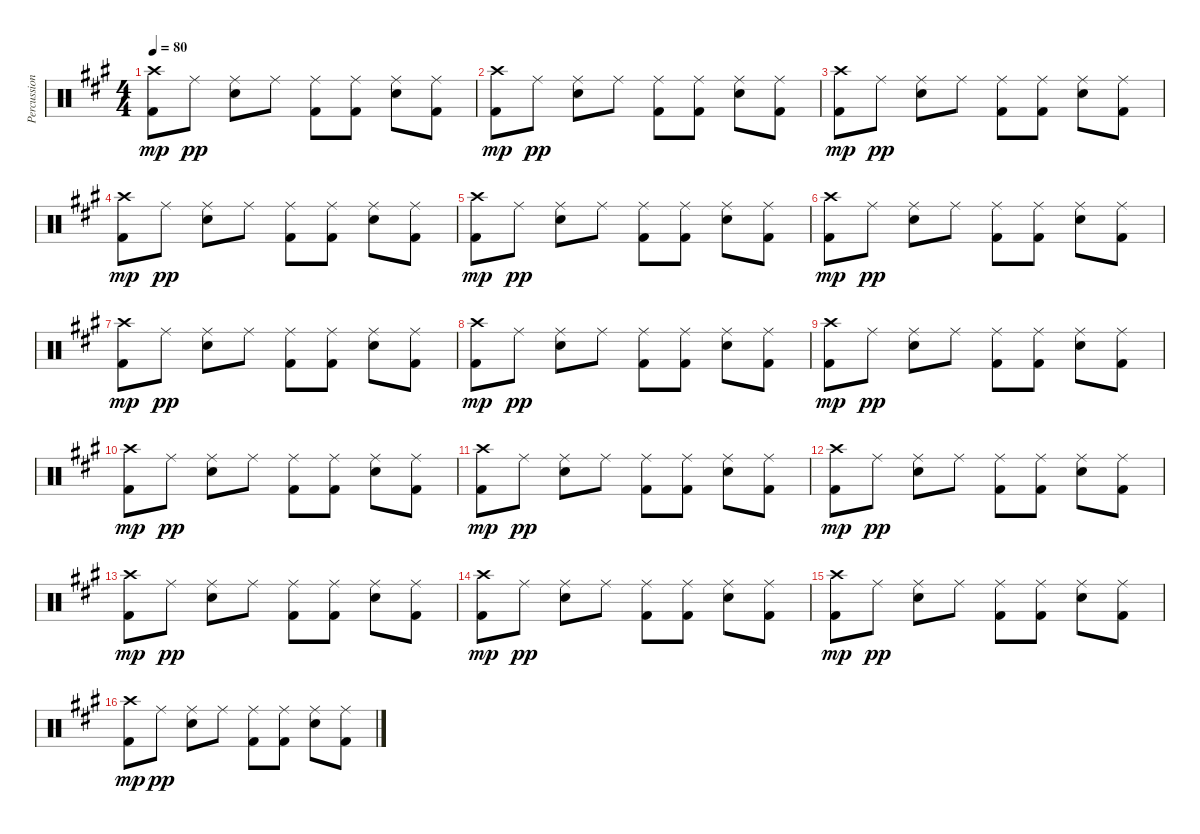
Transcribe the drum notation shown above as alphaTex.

\track ("Percussion" "Percussion") {instrument percussion}
\staff {score}
\articulation defaults
\ts (4 4)
\tempo 80
\clef neutral
\ks a
("Crash high (hit)" "Kick (hit) 2").8{dy mp} "Ride (middle)".8{dy pp} ("Ride (middle)" "Electric Snare (hit)").8 "Ride (middle)".8 ("Ride (middle)" "Kick (hit) 2").8 ("Ride (middle)" "Kick (hit) 2").8 ("Ride (middle)" "Electric Snare (hit)").8 ("Ride (middle)" "Kick (hit) 2").8 |
("Crash high (hit)" "Kick (hit) 2").8{dy mp} "Ride (middle)".8{dy pp} ("Ride (middle)" "Electric Snare (hit)").8 "Ride (middle)".8 ("Ride (middle)" "Kick (hit) 2").8 ("Ride (middle)" "Kick (hit) 2").8 ("Ride (middle)" "Electric Snare (hit)").8 ("Ride (middle)" "Kick (hit) 2").8 |
("Crash high (hit)" "Kick (hit) 2").8{dy mp} "Ride (middle)".8{dy pp} ("Ride (middle)" "Electric Snare (hit)").8 "Ride (middle)".8 ("Ride (middle)" "Kick (hit) 2").8 ("Ride (middle)" "Kick (hit) 2").8 ("Ride (middle)" "Electric Snare (hit)").8 ("Ride (middle)" "Kick (hit) 2").8 |
("Crash high (hit)" "Kick (hit) 2").8{dy mp} "Ride (middle)".8{dy pp} ("Ride (middle)" "Electric Snare (hit)").8 "Ride (middle)".8 ("Ride (middle)" "Kick (hit) 2").8 ("Ride (middle)" "Kick (hit) 2").8 ("Ride (middle)" "Electric Snare (hit)").8 ("Ride (middle)" "Kick (hit) 2").8 |
("Crash high (hit)" "Kick (hit) 2").8{dy mp} "Ride (middle)".8{dy pp} ("Ride (middle)" "Electric Snare (hit)").8 "Ride (middle)".8 ("Ride (middle)" "Kick (hit) 2").8 ("Ride (middle)" "Kick (hit) 2").8 ("Ride (middle)" "Electric Snare (hit)").8 ("Ride (middle)" "Kick (hit) 2").8 |
("Crash high (hit)" "Kick (hit) 2").8{dy mp} "Ride (middle)".8{dy pp} ("Ride (middle)" "Electric Snare (hit)").8 "Ride (middle)".8 ("Ride (middle)" "Kick (hit) 2").8 ("Ride (middle)" "Kick (hit) 2").8 ("Ride (middle)" "Electric Snare (hit)").8 ("Ride (middle)" "Kick (hit) 2").8 |
("Crash high (hit)" "Kick (hit) 2").8{dy mp} "Ride (middle)".8{dy pp} ("Ride (middle)" "Electric Snare (hit)").8 "Ride (middle)".8 ("Ride (middle)" "Kick (hit) 2").8 ("Ride (middle)" "Kick (hit) 2").8 ("Ride (middle)" "Electric Snare (hit)").8 ("Ride (middle)" "Kick (hit) 2").8 |
("Crash high (hit)" "Kick (hit) 2").8{dy mp} "Ride (middle)".8{dy pp} ("Ride (middle)" "Electric Snare (hit)").8 "Ride (middle)".8 ("Ride (middle)" "Kick (hit) 2").8 ("Ride (middle)" "Kick (hit) 2").8 ("Ride (middle)" "Electric Snare (hit)").8 ("Ride (middle)" "Kick (hit) 2").8 |
("Crash high (hit)" "Kick (hit) 2").8{dy mp} "Ride (middle)".8{dy pp} ("Ride (middle)" "Electric Snare (hit)").8 "Ride (middle)".8 ("Ride (middle)" "Kick (hit) 2").8 ("Ride (middle)" "Kick (hit) 2").8 ("Ride (middle)" "Electric Snare (hit)").8 ("Ride (middle)" "Kick (hit) 2").8 |
("Crash high (hit)" "Kick (hit) 2").8{dy mp} "Ride (middle)".8{dy pp} ("Ride (middle)" "Electric Snare (hit)").8 "Ride (middle)".8 ("Ride (middle)" "Kick (hit) 2").8 ("Ride (middle)" "Kick (hit) 2").8 ("Ride (middle)" "Electric Snare (hit)").8 ("Ride (middle)" "Kick (hit) 2").8 |
("Crash high (hit)" "Kick (hit) 2").8{dy mp} "Ride (middle)".8{dy pp} ("Ride (middle)" "Electric Snare (hit)").8 "Ride (middle)".8 ("Ride (middle)" "Kick (hit) 2").8 ("Ride (middle)" "Kick (hit) 2").8 ("Ride (middle)" "Electric Snare (hit)").8 ("Ride (middle)" "Kick (hit) 2").8 |
("Crash high (hit)" "Kick (hit) 2").8{dy mp} "Ride (middle)".8{dy pp} ("Ride (middle)" "Electric Snare (hit)").8 "Ride (middle)".8 ("Ride (middle)" "Kick (hit) 2").8 ("Ride (middle)" "Kick (hit) 2").8 ("Ride (middle)" "Electric Snare (hit)").8 ("Ride (middle)" "Kick (hit) 2").8 |
("Crash high (hit)" "Kick (hit) 2").8{dy mp} "Ride (middle)".8{dy pp} ("Ride (middle)" "Electric Snare (hit)").8 "Ride (middle)".8 ("Ride (middle)" "Kick (hit) 2").8 ("Ride (middle)" "Kick (hit) 2").8 ("Ride (middle)" "Electric Snare (hit)").8 ("Ride (middle)" "Kick (hit) 2").8 |
("Crash high (hit)" "Kick (hit) 2").8{dy mp} "Ride (middle)".8{dy pp} ("Ride (middle)" "Electric Snare (hit)").8 "Ride (middle)".8 ("Ride (middle)" "Kick (hit) 2").8 ("Ride (middle)" "Kick (hit) 2").8 ("Ride (middle)" "Electric Snare (hit)").8 ("Ride (middle)" "Kick (hit) 2").8 |
("Crash high (hit)" "Kick (hit) 2").8{dy mp} "Ride (middle)".8{dy pp} ("Ride (middle)" "Electric Snare (hit)").8 "Ride (middle)".8 ("Ride (middle)" "Kick (hit) 2").8 ("Ride (middle)" "Kick (hit) 2").8 ("Ride (middle)" "Electric Snare (hit)").8 ("Ride (middle)" "Kick (hit) 2").8 |
("Crash high (hit)" "Kick (hit) 2").8{dy mp} "Ride (middle)".8{dy pp} ("Ride (middle)" "Electric Snare (hit)").8 "Ride (middle)".8 ("Ride (middle)" "Kick (hit) 2").8 ("Ride (middle)" "Kick (hit) 2").8 ("Ride (middle)" "Electric Snare (hit)").8 ("Ride (middle)" "Kick (hit) 2").8
